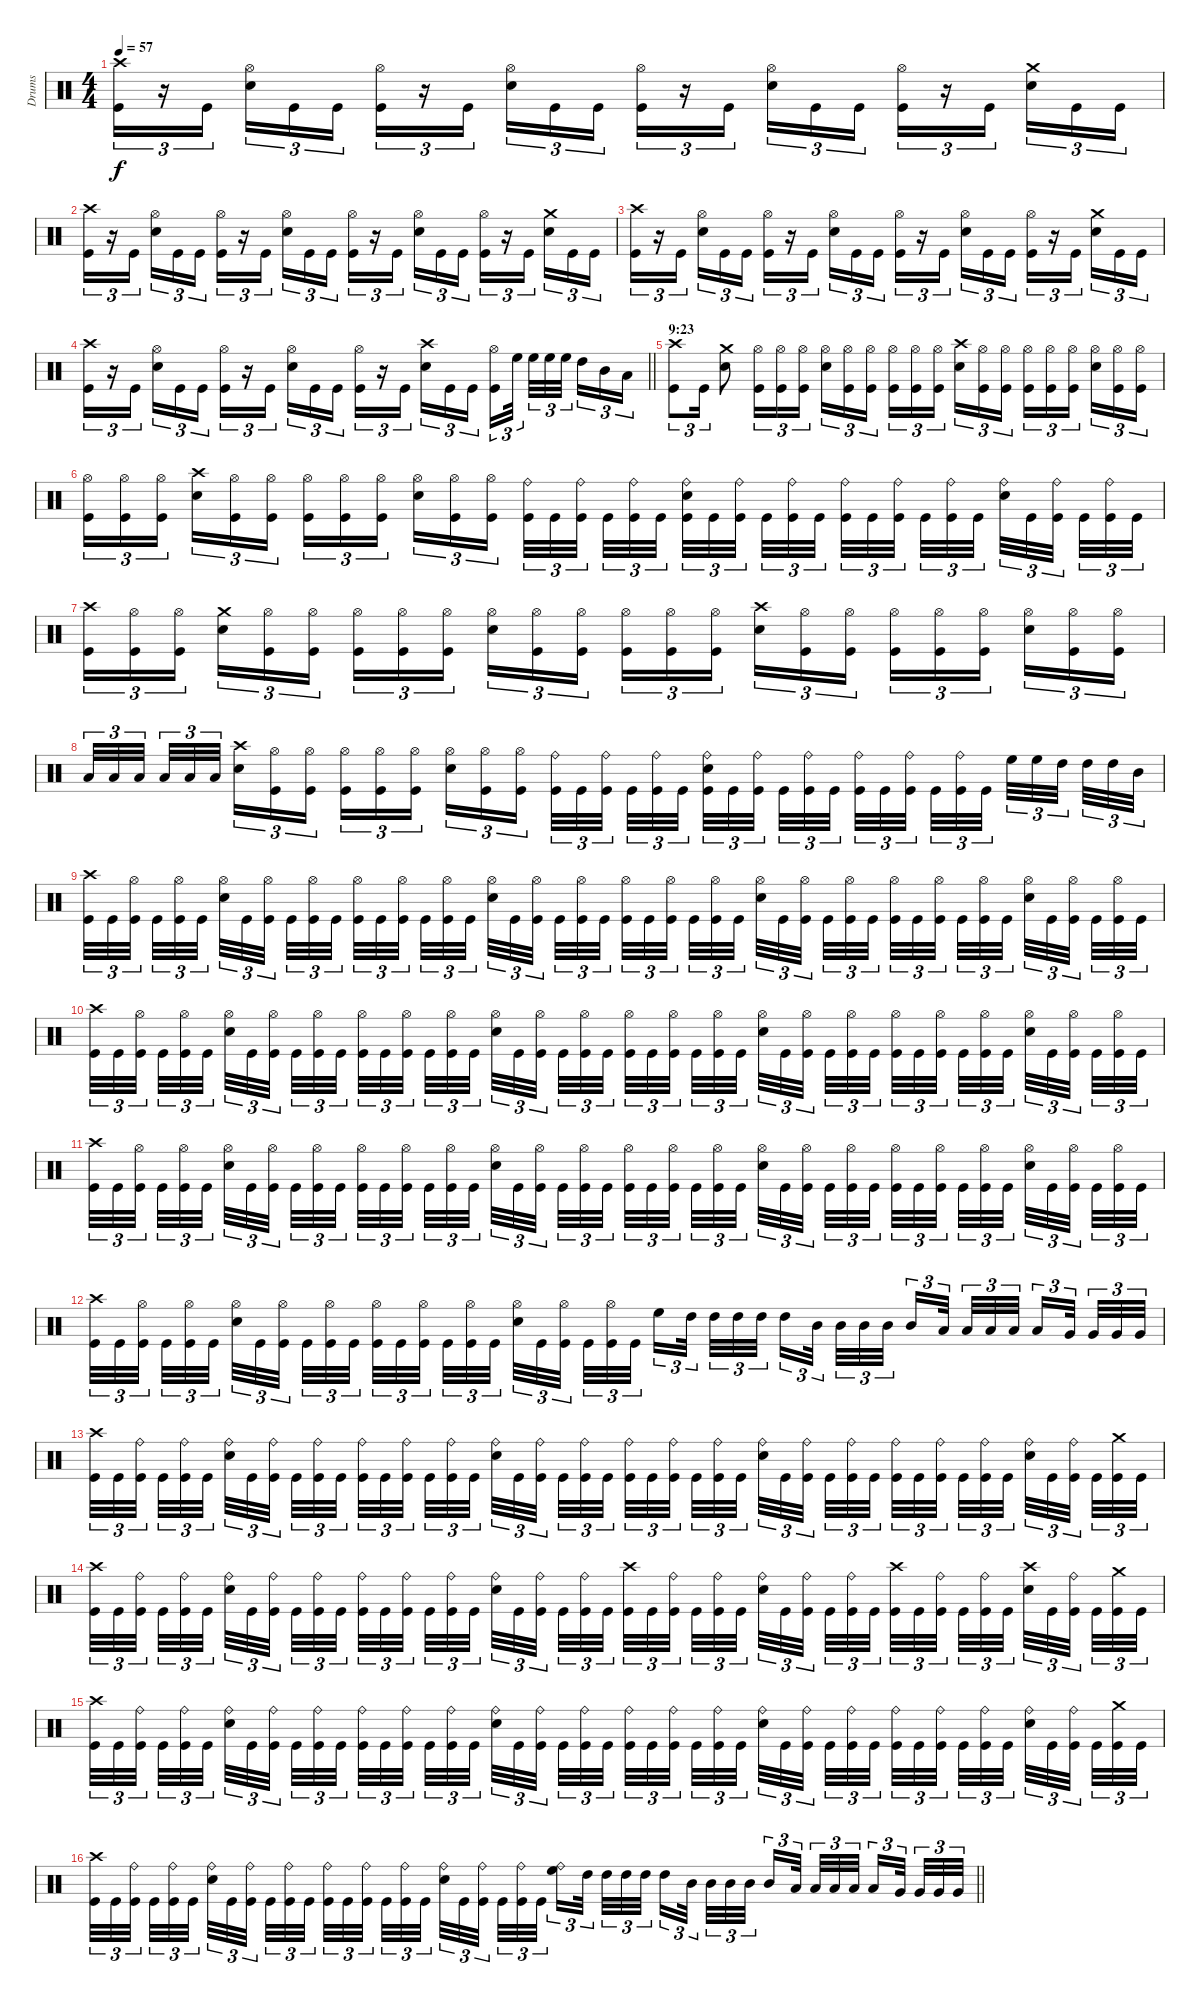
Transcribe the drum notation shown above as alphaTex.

\track ("Drums" "Drums") {instrument percussion}
\staff {score}
\articulation defaults
\ts (4 4)
\tempo 57
\clef neutral
\ks c
("Crash high (hit)" "Kick (hit)").16{tu (3 2) dy f} r.16{tu (3 2)} "Kick (hit)".16{tu (3 2) beam splitsecondary} ("Snare (hit) 2" "Hi-Hat (open)").16{tu (3 2)} "Kick (hit)".16{tu (3 2)} "Kick (hit)".16{tu (3 2)} ("Hi-Hat (open)" "Kick (hit)").16{tu (3 2)} r.16{tu (3 2)} "Kick (hit)".16{tu (3 2) beam splitsecondary} ("Snare (hit) 2" "Hi-Hat (open)").16{tu (3 2)} "Kick (hit)".16{tu (3 2)} "Kick (hit)".16{tu (3 2)} ("Hi-Hat (open)" "Kick (hit)").16{tu (3 2)} r.16{tu (3 2)} "Kick (hit)".16{tu (3 2) beam splitsecondary} ("Snare (hit) 2" "Hi-Hat (open)").16{tu (3 2)} "Kick (hit)".16{tu (3 2)} "Kick (hit)".16{tu (3 2)} ("Hi-Hat (open)" "Kick (hit)").16{tu (3 2)} r.16{tu (3 2)} "Kick (hit)".16{tu (3 2) beam splitsecondary} ("Snare (hit) 2" "Crash medium (hit)").16{tu (3 2)} "Kick (hit)".16{tu (3 2)} "Kick (hit)".16{tu (3 2)} |
("Crash high (hit)" "Kick (hit)").16{tu (3 2)} r.16{tu (3 2)} "Kick (hit)".16{tu (3 2) beam splitsecondary} ("Snare (hit) 2" "Hi-Hat (open)").16{tu (3 2)} "Kick (hit)".16{tu (3 2)} "Kick (hit)".16{tu (3 2)} ("Hi-Hat (open)" "Kick (hit)").16{tu (3 2)} r.16{tu (3 2)} "Kick (hit)".16{tu (3 2) beam splitsecondary} ("Snare (hit) 2" "Hi-Hat (open)").16{tu (3 2)} "Kick (hit)".16{tu (3 2)} "Kick (hit)".16{tu (3 2)} ("Hi-Hat (open)" "Kick (hit)").16{tu (3 2)} r.16{tu (3 2)} "Kick (hit)".16{tu (3 2) beam splitsecondary} ("Snare (hit) 2" "Hi-Hat (open)").16{tu (3 2)} "Kick (hit)".16{tu (3 2)} "Kick (hit)".16{tu (3 2)} ("Hi-Hat (open)" "Kick (hit)").16{tu (3 2)} r.16{tu (3 2)} "Kick (hit)".16{tu (3 2) beam splitsecondary} ("Snare (hit) 2" "Crash medium (hit)").16{tu (3 2)} "Kick (hit)".16{tu (3 2)} "Kick (hit)".16{tu (3 2)} |
("Crash high (hit)" "Kick (hit)").16{tu (3 2)} r.16{tu (3 2)} "Kick (hit)".16{tu (3 2) beam splitsecondary} ("Snare (hit) 2" "Hi-Hat (open)").16{tu (3 2)} "Kick (hit)".16{tu (3 2)} "Kick (hit)".16{tu (3 2)} ("Hi-Hat (open)" "Kick (hit)").16{tu (3 2)} r.16{tu (3 2)} "Kick (hit)".16{tu (3 2) beam splitsecondary} ("Snare (hit) 2" "Hi-Hat (open)").16{tu (3 2)} "Kick (hit)".16{tu (3 2)} "Kick (hit)".16{tu (3 2)} ("Hi-Hat (open)" "Kick (hit)").16{tu (3 2)} r.16{tu (3 2)} "Kick (hit)".16{tu (3 2) beam splitsecondary} ("Snare (hit) 2" "Hi-Hat (open)").16{tu (3 2)} "Kick (hit)".16{tu (3 2)} "Kick (hit)".16{tu (3 2)} ("Hi-Hat (open)" "Kick (hit)").16{tu (3 2)} r.16{tu (3 2)} "Kick (hit)".16{tu (3 2) beam splitsecondary} ("Snare (hit) 2" "Crash medium (hit)").16{tu (3 2)} "Kick (hit)".16{tu (3 2)} "Kick (hit)".16{tu (3 2)} |
\barLineRight lightlight
("Crash high (hit)" "Kick (hit)").16{tu (3 2)} r.16{tu (3 2)} "Kick (hit)".16{tu (3 2) beam splitsecondary} ("Snare (hit) 2" "Hi-Hat (open)").16{tu (3 2)} "Kick (hit)".16{tu (3 2)} "Kick (hit)".16{tu (3 2)} ("Hi-Hat (open)" "Kick (hit)").16{tu (3 2)} r.16{tu (3 2)} "Kick (hit)".16{tu (3 2) beam splitsecondary} ("Snare (hit) 2" "Hi-Hat (open)").16{tu (3 2)} "Kick (hit)".16{tu (3 2)} "Kick (hit)".16{tu (3 2)} ("Hi-Hat (open)" "Kick (hit)").16{tu (3 2)} r.16{tu (3 2)} "Kick (hit)".16{tu (3 2) beam splitsecondary} ("Snare (hit) 2" "Crash high (hit)").16{tu (3 2)} "Kick (hit)".16{tu (3 2)} "Kick (hit)".16{tu (3 2)} ("Hi-Hat (open)" "Kick (hit)").16{tu (3 2)} "High Floor Tom (hit)".32{tu (3 2) beam splitsecondary} "High Floor Tom (hit)".32{tu (3 2)} "High Floor Tom (hit)".32{tu (3 2)} "High Floor Tom (hit)".32{tu (3 2) beam splitsecondary} "High Tom (hit)".16{tu (3 2)} "Mid Tom (hit)".16{tu (3 2)} "Low Tom (hit)".16{tu (3 2)} |
\section ("" "9:23")
("Crash high (hit)" "Kick (hit)").8{tu (3 2)} "Kick (hit)".16{tu (3 2)} ("Snare (hit) 2" "Crash medium (hit)").8 ("Kick (hit)" "Hi-Hat (open)").16{tu (3 2)} ("Kick (hit)" "Hi-Hat (open)").16{tu (3 2)} ("Kick (hit)" "Hi-Hat (open)").16{tu (3 2) beam splitsecondary} ("Hi-Hat (open)" "Snare (hit) 2").16{tu (3 2)} ("Kick (hit)" "Hi-Hat (open)").16{tu (3 2)} ("Kick (hit)" "Hi-Hat (open)").16{tu (3 2)} ("Kick (hit)" "Hi-Hat (open)").16{tu (3 2)} ("Kick (hit)" "Hi-Hat (open)").16{tu (3 2)} ("Kick (hit)" "Hi-Hat (open)").16{tu (3 2) beam splitsecondary} ("Crash high (hit)" "Snare (hit) 2").16{tu (3 2)} ("Kick (hit)" "Hi-Hat (open)").16{tu (3 2)} ("Kick (hit)" "Hi-Hat (open)").16{tu (3 2)} ("Kick (hit)" "Hi-Hat (open)").16{tu (3 2)} ("Kick (hit)" "Hi-Hat (open)").16{tu (3 2)} ("Kick (hit)" "Hi-Hat (open)").16{tu (3 2) beam splitsecondary} ("Hi-Hat (open)" "Snare (hit) 2").16{tu (3 2)} ("Kick (hit)" "Hi-Hat (open)").16{tu (3 2)} ("Kick (hit)" "Hi-Hat (open)").16{tu (3 2)} |
("Kick (hit)" "Hi-Hat (open)").16{tu (3 2)} ("Kick (hit)" "Hi-Hat (open)").16{tu (3 2)} ("Kick (hit)" "Hi-Hat (open)").16{tu (3 2) beam splitsecondary} ("Crash high (hit)" "Snare (hit) 2").16{tu (3 2)} ("Kick (hit)" "Hi-Hat (open)").16{tu (3 2)} ("Kick (hit)" "Hi-Hat (open)").16{tu (3 2)} ("Kick (hit)" "Hi-Hat (open)").16{tu (3 2)} ("Kick (hit)" "Hi-Hat (open)").16{tu (3 2)} ("Kick (hit)" "Hi-Hat (open)").16{tu (3 2) beam splitsecondary} ("Hi-Hat (open)" "Snare (hit) 2").16{tu (3 2)} ("Kick (hit)" "Hi-Hat (open)").16{tu (3 2)} ("Kick (hit)" "Hi-Hat (open)").16{tu (3 2)} ("Kick (hit)" "Ride (bell)").32{tu (3 2)} "Kick (hit)".32{tu (3 2)} ("Kick (hit)" "Ride (bell)").32{tu (3 2) beam splitsecondary} "Kick (hit)".32{tu (3 2)} ("Kick (hit)" "Ride (bell)").32{tu (3 2)} "Kick (hit)".32{tu (3 2) beam splitsecondary} ("Kick (hit)" "Snare (hit) 2" "Ride (bell)").32{tu (3 2)} "Kick (hit)".32{tu (3 2)} ("Ride (bell)" "Kick (hit)").32{tu (3 2) beam splitsecondary} "Kick (hit)".32{tu (3 2)} ("Kick (hit)" "Ride (bell)").32{tu (3 2)} "Kick (hit)".32{tu (3 2)} ("Ride (bell)" "Kick (hit)").32{tu (3 2)} "Kick (hit)".32{tu (3 2)} ("Kick (hit)" "Ride (bell)").32{tu (3 2) beam splitsecondary} "Kick (hit)".32{tu (3 2)} ("Ride (bell)" "Kick (hit)").32{tu (3 2)} "Kick (hit)".32{tu (3 2) beam splitsecondary} ("Snare (hit) 2" "Ride (bell)").32{tu (3 2)} "Kick (hit)".32{tu (3 2)} ("Kick (hit)" "Ride (bell)").32{tu (3 2) beam splitsecondary} "Kick (hit)".32{tu (3 2)} ("Kick (hit)" "Ride (bell)").32{tu (3 2)} "Kick (hit)".32{tu (3 2)} |
("Kick (hit)" "Crash high (hit)").16{tu (3 2)} ("Kick (hit)" "Hi-Hat (open)").16{tu (3 2)} ("Kick (hit)" "Hi-Hat (open)").16{tu (3 2) beam splitsecondary} ("Crash medium (hit)" "Snare (hit) 2").16{tu (3 2)} ("Kick (hit)" "Hi-Hat (open)").16{tu (3 2)} ("Kick (hit)" "Hi-Hat (open)").16{tu (3 2)} ("Kick (hit)" "Hi-Hat (open)").16{tu (3 2)} ("Kick (hit)" "Hi-Hat (open)").16{tu (3 2)} ("Kick (hit)" "Hi-Hat (open)").16{tu (3 2) beam splitsecondary} ("Hi-Hat (open)" "Snare (hit) 2").16{tu (3 2)} ("Kick (hit)" "Hi-Hat (open)").16{tu (3 2)} ("Kick (hit)" "Hi-Hat (open)").16{tu (3 2)} ("Kick (hit)" "Hi-Hat (open)").16{tu (3 2)} ("Kick (hit)" "Hi-Hat (open)").16{tu (3 2)} ("Kick (hit)" "Hi-Hat (open)").16{tu (3 2) beam splitsecondary} ("Crash high (hit)" "Snare (hit) 2").16{tu (3 2)} ("Kick (hit)" "Hi-Hat (open)").16{tu (3 2)} ("Kick (hit)" "Hi-Hat (open)").16{tu (3 2)} ("Kick (hit)" "Hi-Hat (open)").16{tu (3 2)} ("Kick (hit)" "Hi-Hat (open)").16{tu (3 2)} ("Kick (hit)" "Hi-Hat (open)").16{tu (3 2) beam splitsecondary} ("Hi-Hat (open)" "Snare (hit) 2").16{tu (3 2)} ("Kick (hit)" "Hi-Hat (open)").16{tu (3 2)} ("Kick (hit)" "Hi-Hat (open)").16{tu (3 2)} |
"Low Tom (hit)".32{tu (3 2)} "Low Tom (hit)".32{tu (3 2)} "Low Tom (hit)".32{tu (3 2) beam splitsecondary} "Low Tom (hit)".32{tu (3 2)} "Low Tom (hit)".32{tu (3 2)} "Low Tom (hit)".32{tu (3 2) beam splitsecondary} ("Crash high (hit)" "Snare (hit) 2").16{tu (3 2)} ("Kick (hit)" "Hi-Hat (open)").16{tu (3 2)} ("Kick (hit)" "Hi-Hat (open)").16{tu (3 2)} ("Kick (hit)" "Hi-Hat (open)").16{tu (3 2)} ("Kick (hit)" "Hi-Hat (open)").16{tu (3 2)} ("Kick (hit)" "Hi-Hat (open)").16{tu (3 2) beam splitsecondary} ("Hi-Hat (open)" "Snare (hit) 2").16{tu (3 2)} ("Kick (hit)" "Hi-Hat (open)").16{tu (3 2)} ("Kick (hit)" "Hi-Hat (open)").16{tu (3 2)} ("Kick (hit)" "Ride (bell)").32{tu (3 2)} "Kick (hit)".32{tu (3 2)} ("Kick (hit)" "Ride (bell)").32{tu (3 2) beam splitsecondary} "Kick (hit)".32{tu (3 2)} ("Kick (hit)" "Ride (bell)").32{tu (3 2)} "Kick (hit)".32{tu (3 2) beam splitsecondary} ("Kick (hit)" "Snare (hit) 2" "Ride (bell)").32{tu (3 2)} "Kick (hit)".32{tu (3 2)} ("Ride (bell)" "Kick (hit)").32{tu (3 2) beam splitsecondary} "Kick (hit)".32{tu (3 2)} ("Kick (hit)" "Ride (bell)").32{tu (3 2)} "Kick (hit)".32{tu (3 2)} ("Ride (bell)" "Kick (hit)").32{tu (3 2)} "Kick (hit)".32{tu (3 2)} ("Kick (hit)" "Ride (bell)").32{tu (3 2) beam splitsecondary} "Kick (hit)".32{tu (3 2)} ("Ride (bell)" "Kick (hit)").32{tu (3 2)} "Kick (hit)".32{tu (3 2) beam splitsecondary} "High Floor Tom (hit)".32{tu (3 2)} "High Floor Tom (hit)".32{tu (3 2)} "High Tom (hit)".32{tu (3 2) beam splitsecondary} "High Tom (hit)".32{tu (3 2)} "High Tom (hit)".32{tu (3 2)} "Mid Tom (hit)".32{tu (3 2)} |
("Kick (hit)" "Crash high (hit)").32{tu (3 2)} "Kick (hit)".32{tu (3 2)} ("Kick (hit)" "Hi-Hat (open)").32{tu (3 2) beam splitsecondary} "Kick (hit)".32{tu (3 2)} ("Kick (hit)" "Hi-Hat (open)").32{tu (3 2)} "Kick (hit)".32{tu (3 2) beam splitsecondary} ("Snare (hit) 2" "Hi-Hat (open)").32{tu (3 2)} "Kick (hit)".32{tu (3 2)} ("Kick (hit)" "Hi-Hat (open)").32{tu (3 2) beam splitsecondary} "Kick (hit)".32{tu (3 2)} ("Kick (hit)" "Hi-Hat (open)").32{tu (3 2)} "Kick (hit)".32{tu (3 2)} ("Kick (hit)" "Hi-Hat (open)").32{tu (3 2)} "Kick (hit)".32{tu (3 2)} ("Kick (hit)" "Hi-Hat (open)").32{tu (3 2) beam splitsecondary} "Kick (hit)".32{tu (3 2)} ("Kick (hit)" "Hi-Hat (open)").32{tu (3 2)} "Kick (hit)".32{tu (3 2) beam splitsecondary} ("Snare (hit) 2" "Hi-Hat (open)").32{tu (3 2)} "Kick (hit)".32{tu (3 2)} ("Kick (hit)" "Hi-Hat (open)").32{tu (3 2) beam splitsecondary} "Kick (hit)".32{tu (3 2)} ("Kick (hit)" "Hi-Hat (open)").32{tu (3 2)} "Kick (hit)".32{tu (3 2)} ("Kick (hit)" "Hi-Hat (open)").32{tu (3 2)} "Kick (hit)".32{tu (3 2)} ("Kick (hit)" "Hi-Hat (open)").32{tu (3 2) beam splitsecondary} "Kick (hit)".32{tu (3 2)} ("Kick (hit)" "Hi-Hat (open)").32{tu (3 2)} "Kick (hit)".32{tu (3 2) beam splitsecondary} ("Snare (hit) 2" "Hi-Hat (open)").32{tu (3 2)} "Kick (hit)".32{tu (3 2)} ("Kick (hit)" "Hi-Hat (open)").32{tu (3 2) beam splitsecondary} "Kick (hit)".32{tu (3 2)} ("Kick (hit)" "Hi-Hat (open)").32{tu (3 2)} "Kick (hit)".32{tu (3 2)} ("Kick (hit)" "Hi-Hat (open)").32{tu (3 2)} "Kick (hit)".32{tu (3 2)} ("Kick (hit)" "Hi-Hat (open)").32{tu (3 2) beam splitsecondary} "Kick (hit)".32{tu (3 2)} ("Kick (hit)" "Hi-Hat (open)").32{tu (3 2)} "Kick (hit)".32{tu (3 2) beam splitsecondary} ("Snare (hit) 2" "Hi-Hat (open)").32{tu (3 2)} "Kick (hit)".32{tu (3 2)} ("Kick (hit)" "Hi-Hat (open)").32{tu (3 2) beam splitsecondary} "Kick (hit)".32{tu (3 2)} ("Kick (hit)" "Hi-Hat (open)").32{tu (3 2)} "Kick (hit)".32{tu (3 2)} |
("Kick (hit)" "Crash high (hit)").32{tu (3 2)} "Kick (hit)".32{tu (3 2)} ("Kick (hit)" "Hi-Hat (open)").32{tu (3 2) beam splitsecondary} "Kick (hit)".32{tu (3 2)} ("Kick (hit)" "Hi-Hat (open)").32{tu (3 2)} "Kick (hit)".32{tu (3 2) beam splitsecondary} ("Snare (hit) 2" "Hi-Hat (open)").32{tu (3 2)} "Kick (hit)".32{tu (3 2)} ("Kick (hit)" "Hi-Hat (open)").32{tu (3 2) beam splitsecondary} "Kick (hit)".32{tu (3 2)} ("Kick (hit)" "Hi-Hat (open)").32{tu (3 2)} "Kick (hit)".32{tu (3 2)} ("Kick (hit)" "Hi-Hat (open)").32{tu (3 2)} "Kick (hit)".32{tu (3 2)} ("Kick (hit)" "Hi-Hat (open)").32{tu (3 2) beam splitsecondary} "Kick (hit)".32{tu (3 2)} ("Kick (hit)" "Hi-Hat (open)").32{tu (3 2)} "Kick (hit)".32{tu (3 2) beam splitsecondary} ("Snare (hit) 2" "Hi-Hat (open)").32{tu (3 2)} "Kick (hit)".32{tu (3 2)} ("Kick (hit)" "Hi-Hat (open)").32{tu (3 2) beam splitsecondary} "Kick (hit)".32{tu (3 2)} ("Kick (hit)" "Hi-Hat (open)").32{tu (3 2)} "Kick (hit)".32{tu (3 2)} ("Kick (hit)" "Hi-Hat (open)").32{tu (3 2)} "Kick (hit)".32{tu (3 2)} ("Kick (hit)" "Hi-Hat (open)").32{tu (3 2) beam splitsecondary} "Kick (hit)".32{tu (3 2)} ("Kick (hit)" "Hi-Hat (open)").32{tu (3 2)} "Kick (hit)".32{tu (3 2) beam splitsecondary} ("Snare (hit) 2" "Hi-Hat (open)").32{tu (3 2)} "Kick (hit)".32{tu (3 2)} ("Kick (hit)" "Hi-Hat (open)").32{tu (3 2) beam splitsecondary} "Kick (hit)".32{tu (3 2)} ("Kick (hit)" "Hi-Hat (open)").32{tu (3 2)} "Kick (hit)".32{tu (3 2)} ("Kick (hit)" "Hi-Hat (open)").32{tu (3 2)} "Kick (hit)".32{tu (3 2)} ("Kick (hit)" "Hi-Hat (open)").32{tu (3 2) beam splitsecondary} "Kick (hit)".32{tu (3 2)} ("Kick (hit)" "Hi-Hat (open)").32{tu (3 2)} "Kick (hit)".32{tu (3 2) beam splitsecondary} ("Snare (hit) 2" "Hi-Hat (open)").32{tu (3 2)} "Kick (hit)".32{tu (3 2)} ("Kick (hit)" "Hi-Hat (open)").32{tu (3 2) beam splitsecondary} "Kick (hit)".32{tu (3 2)} ("Kick (hit)" "Hi-Hat (open)").32{tu (3 2)} "Kick (hit)".32{tu (3 2)} |
("Kick (hit)" "Crash high (hit)").32{tu (3 2)} "Kick (hit)".32{tu (3 2)} ("Kick (hit)" "Hi-Hat (open)").32{tu (3 2) beam splitsecondary} "Kick (hit)".32{tu (3 2)} ("Kick (hit)" "Hi-Hat (open)").32{tu (3 2)} "Kick (hit)".32{tu (3 2) beam splitsecondary} ("Snare (hit) 2" "Hi-Hat (open)").32{tu (3 2)} "Kick (hit)".32{tu (3 2)} ("Kick (hit)" "Hi-Hat (open)").32{tu (3 2) beam splitsecondary} "Kick (hit)".32{tu (3 2)} ("Kick (hit)" "Hi-Hat (open)").32{tu (3 2)} "Kick (hit)".32{tu (3 2)} ("Kick (hit)" "Hi-Hat (open)").32{tu (3 2)} "Kick (hit)".32{tu (3 2)} ("Kick (hit)" "Hi-Hat (open)").32{tu (3 2) beam splitsecondary} "Kick (hit)".32{tu (3 2)} ("Kick (hit)" "Hi-Hat (open)").32{tu (3 2)} "Kick (hit)".32{tu (3 2) beam splitsecondary} ("Snare (hit) 2" "Hi-Hat (open)").32{tu (3 2)} "Kick (hit)".32{tu (3 2)} ("Kick (hit)" "Hi-Hat (open)").32{tu (3 2) beam splitsecondary} "Kick (hit)".32{tu (3 2)} ("Kick (hit)" "Hi-Hat (open)").32{tu (3 2)} "Kick (hit)".32{tu (3 2)} ("Kick (hit)" "Hi-Hat (open)").32{tu (3 2)} "Kick (hit)".32{tu (3 2)} ("Kick (hit)" "Hi-Hat (open)").32{tu (3 2) beam splitsecondary} "Kick (hit)".32{tu (3 2)} ("Kick (hit)" "Hi-Hat (open)").32{tu (3 2)} "Kick (hit)".32{tu (3 2) beam splitsecondary} ("Snare (hit) 2" "Hi-Hat (open)").32{tu (3 2)} "Kick (hit)".32{tu (3 2)} ("Kick (hit)" "Hi-Hat (open)").32{tu (3 2) beam splitsecondary} "Kick (hit)".32{tu (3 2)} ("Kick (hit)" "Hi-Hat (open)").32{tu (3 2)} "Kick (hit)".32{tu (3 2)} ("Kick (hit)" "Hi-Hat (open)").32{tu (3 2)} "Kick (hit)".32{tu (3 2)} ("Kick (hit)" "Hi-Hat (open)").32{tu (3 2) beam splitsecondary} "Kick (hit)".32{tu (3 2)} ("Kick (hit)" "Hi-Hat (open)").32{tu (3 2)} "Kick (hit)".32{tu (3 2) beam splitsecondary} ("Snare (hit) 2" "Hi-Hat (open)").32{tu (3 2)} "Kick (hit)".32{tu (3 2)} ("Kick (hit)" "Hi-Hat (open)").32{tu (3 2) beam splitsecondary} "Kick (hit)".32{tu (3 2)} ("Kick (hit)" "Hi-Hat (open)").32{tu (3 2)} "Kick (hit)".32{tu (3 2)} |
("Kick (hit)" "Crash high (hit)").32{tu (3 2)} "Kick (hit)".32{tu (3 2)} ("Kick (hit)" "Hi-Hat (open)").32{tu (3 2) beam splitsecondary} "Kick (hit)".32{tu (3 2)} ("Kick (hit)" "Hi-Hat (open)").32{tu (3 2)} "Kick (hit)".32{tu (3 2) beam splitsecondary} ("Snare (hit) 2" "Hi-Hat (open)").32{tu (3 2)} "Kick (hit)".32{tu (3 2)} ("Kick (hit)" "Hi-Hat (open)").32{tu (3 2) beam splitsecondary} "Kick (hit)".32{tu (3 2)} ("Kick (hit)" "Hi-Hat (open)").32{tu (3 2)} "Kick (hit)".32{tu (3 2)} ("Kick (hit)" "Hi-Hat (open)").32{tu (3 2)} "Kick (hit)".32{tu (3 2)} ("Kick (hit)" "Hi-Hat (open)").32{tu (3 2) beam splitsecondary} "Kick (hit)".32{tu (3 2)} ("Kick (hit)" "Hi-Hat (open)").32{tu (3 2)} "Kick (hit)".32{tu (3 2) beam splitsecondary} ("Snare (hit) 2" "Hi-Hat (open)").32{tu (3 2)} "Kick (hit)".32{tu (3 2)} ("Kick (hit)" "Hi-Hat (open)").32{tu (3 2) beam splitsecondary} "Kick (hit)".32{tu (3 2)} ("Kick (hit)" "Hi-Hat (open)").32{tu (3 2)} "Kick (hit)".32{tu (3 2)} "High Floor Tom (hit)".16{tu (3 2)} "High Tom (hit)".32{tu (3 2) beam splitsecondary} "High Tom (hit)".32{tu (3 2)} "High Tom (hit)".32{tu (3 2)} "High Tom (hit)".32{tu (3 2) beam splitsecondary} "High Tom (hit)".16{tu (3 2)} "Mid Tom (hit)".32{tu (3 2) beam splitsecondary} "Mid Tom (hit)".32{tu (3 2)} "Mid Tom (hit)".32{tu (3 2)} "Mid Tom (hit)".32{tu (3 2)} "Mid Tom (hit)".16{tu (3 2)} "Low Tom (hit)".32{tu (3 2) beam splitsecondary} "Low Tom (hit)".32{tu (3 2)} "Low Tom (hit)".32{tu (3 2)} "Low Tom (hit)".32{tu (3 2) beam splitsecondary} "Low Tom (hit)".16{tu (3 2)} "Very Low Tom (hit)".32{tu (3 2) beam splitsecondary} "Very Low Tom (hit)".32{tu (3 2)} "Very Low Tom (hit)".32{tu (3 2)} "Very Low Tom (hit)".32{tu (3 2)} |
("Kick (hit)" "Crash high (hit)").32{tu (3 2)} "Kick (hit)".32{tu (3 2)} ("Kick (hit)" "Ride (bell)").32{tu (3 2) beam splitsecondary} "Kick (hit)".32{tu (3 2)} ("Kick (hit)" "Ride (bell)").32{tu (3 2)} "Kick (hit)".32{tu (3 2) beam splitsecondary} ("Snare (hit) 2" "Ride (bell)").32{tu (3 2)} "Kick (hit)".32{tu (3 2)} ("Kick (hit)" "Ride (bell)").32{tu (3 2) beam splitsecondary} "Kick (hit)".32{tu (3 2)} ("Kick (hit)" "Ride (bell)").32{tu (3 2)} "Kick (hit)".32{tu (3 2)} ("Kick (hit)" "Ride (bell)").32{tu (3 2)} "Kick (hit)".32{tu (3 2)} ("Kick (hit)" "Ride (bell)").32{tu (3 2) beam splitsecondary} "Kick (hit)".32{tu (3 2)} ("Kick (hit)" "Ride (bell)").32{tu (3 2)} "Kick (hit)".32{tu (3 2) beam splitsecondary} ("Snare (hit) 2" "Ride (bell)").32{tu (3 2)} "Kick (hit)".32{tu (3 2)} ("Kick (hit)" "Ride (bell)").32{tu (3 2) beam splitsecondary} "Kick (hit)".32{tu (3 2)} ("Kick (hit)" "Ride (bell)").32{tu (3 2)} "Kick (hit)".32{tu (3 2)} ("Kick (hit)" "Ride (bell)").32{tu (3 2)} "Kick (hit)".32{tu (3 2)} ("Kick (hit)" "Ride (bell)").32{tu (3 2) beam splitsecondary} "Kick (hit)".32{tu (3 2)} ("Kick (hit)" "Ride (bell)").32{tu (3 2)} "Kick (hit)".32{tu (3 2) beam splitsecondary} ("Snare (hit) 2" "Ride (bell)").32{tu (3 2)} "Kick (hit)".32{tu (3 2)} ("Kick (hit)" "Ride (bell)").32{tu (3 2) beam splitsecondary} "Kick (hit)".32{tu (3 2)} ("Kick (hit)" "Ride (bell)").32{tu (3 2)} "Kick (hit)".32{tu (3 2)} ("Kick (hit)" "Ride (bell)").32{tu (3 2)} "Kick (hit)".32{tu (3 2)} ("Kick (hit)" "Ride (bell)").32{tu (3 2) beam splitsecondary} "Kick (hit)".32{tu (3 2)} ("Kick (hit)" "Ride (bell)").32{tu (3 2)} "Kick (hit)".32{tu (3 2) beam splitsecondary} ("Snare (hit) 2" "Ride (bell)").32{tu (3 2)} "Kick (hit)".32{tu (3 2)} ("Kick (hit)" "Ride (bell)").32{tu (3 2) beam splitsecondary} "Kick (hit)".32{tu (3 2)} ("Kick (hit)" "Crash medium (hit)").32{tu (3 2)} "Kick (hit)".32{tu (3 2)} |
("Kick (hit)" "Crash high (hit)").32{tu (3 2)} "Kick (hit)".32{tu (3 2)} ("Kick (hit)" "Ride (bell)").32{tu (3 2) beam splitsecondary} "Kick (hit)".32{tu (3 2)} ("Kick (hit)" "Ride (bell)").32{tu (3 2)} "Kick (hit)".32{tu (3 2) beam splitsecondary} ("Snare (hit) 2" "Ride (bell)").32{tu (3 2)} "Kick (hit)".32{tu (3 2)} ("Kick (hit)" "Ride (bell)").32{tu (3 2) beam splitsecondary} "Kick (hit)".32{tu (3 2)} ("Kick (hit)" "Ride (bell)").32{tu (3 2)} "Kick (hit)".32{tu (3 2)} ("Kick (hit)" "Ride (bell)").32{tu (3 2)} "Kick (hit)".32{tu (3 2)} ("Kick (hit)" "Ride (bell)").32{tu (3 2) beam splitsecondary} "Kick (hit)".32{tu (3 2)} ("Kick (hit)" "Ride (bell)").32{tu (3 2)} "Kick (hit)".32{tu (3 2) beam splitsecondary} ("Snare (hit) 2" "Ride (bell)").32{tu (3 2)} "Kick (hit)".32{tu (3 2)} ("Kick (hit)" "Ride (bell)").32{tu (3 2) beam splitsecondary} "Kick (hit)".32{tu (3 2)} ("Kick (hit)" "Ride (bell)").32{tu (3 2)} "Kick (hit)".32{tu (3 2)} ("Kick (hit)" "Crash high (hit)").32{tu (3 2)} "Kick (hit)".32{tu (3 2)} ("Kick (hit)" "Ride (bell)").32{tu (3 2) beam splitsecondary} "Kick (hit)".32{tu (3 2)} ("Kick (hit)" "Ride (bell)").32{tu (3 2)} "Kick (hit)".32{tu (3 2) beam splitsecondary} ("Snare (hit) 2" "Ride (bell)").32{tu (3 2)} "Kick (hit)".32{tu (3 2)} ("Kick (hit)" "Ride (bell)").32{tu (3 2) beam splitsecondary} "Kick (hit)".32{tu (3 2)} ("Kick (hit)" "Ride (bell)").32{tu (3 2)} "Kick (hit)".32{tu (3 2)} ("Kick (hit)" "Crash high (hit)").32{tu (3 2)} "Kick (hit)".32{tu (3 2)} ("Kick (hit)" "Ride (bell)").32{tu (3 2) beam splitsecondary} "Kick (hit)".32{tu (3 2)} ("Kick (hit)" "Ride (bell)").32{tu (3 2)} "Kick (hit)".32{tu (3 2) beam splitsecondary} ("Snare (hit) 2" "Crash high (hit)").32{tu (3 2)} "Kick (hit)".32{tu (3 2)} ("Kick (hit)" "Ride (bell)").32{tu (3 2) beam splitsecondary} "Kick (hit)".32{tu (3 2)} ("Kick (hit)" "Crash medium (hit)").32{tu (3 2)} "Kick (hit)".32{tu (3 2)} |
("Kick (hit)" "Crash high (hit)").32{tu (3 2)} "Kick (hit)".32{tu (3 2)} ("Kick (hit)" "Ride (bell)").32{tu (3 2) beam splitsecondary} "Kick (hit)".32{tu (3 2)} ("Kick (hit)" "Ride (bell)").32{tu (3 2)} "Kick (hit)".32{tu (3 2) beam splitsecondary} ("Snare (hit) 2" "Ride (bell)").32{tu (3 2)} "Kick (hit)".32{tu (3 2)} ("Kick (hit)" "Ride (bell)").32{tu (3 2) beam splitsecondary} "Kick (hit)".32{tu (3 2)} ("Kick (hit)" "Ride (bell)").32{tu (3 2)} "Kick (hit)".32{tu (3 2)} ("Kick (hit)" "Ride (bell)").32{tu (3 2)} "Kick (hit)".32{tu (3 2)} ("Kick (hit)" "Ride (bell)").32{tu (3 2) beam splitsecondary} "Kick (hit)".32{tu (3 2)} ("Kick (hit)" "Ride (bell)").32{tu (3 2)} "Kick (hit)".32{tu (3 2) beam splitsecondary} ("Snare (hit) 2" "Ride (bell)").32{tu (3 2)} "Kick (hit)".32{tu (3 2)} ("Kick (hit)" "Ride (bell)").32{tu (3 2) beam splitsecondary} "Kick (hit)".32{tu (3 2)} ("Kick (hit)" "Ride (bell)").32{tu (3 2)} "Kick (hit)".32{tu (3 2)} ("Kick (hit)" "Ride (bell)").32{tu (3 2)} "Kick (hit)".32{tu (3 2)} ("Kick (hit)" "Ride (bell)").32{tu (3 2) beam splitsecondary} "Kick (hit)".32{tu (3 2)} ("Kick (hit)" "Ride (bell)").32{tu (3 2)} "Kick (hit)".32{tu (3 2) beam splitsecondary} ("Snare (hit) 2" "Ride (bell)").32{tu (3 2)} "Kick (hit)".32{tu (3 2)} ("Kick (hit)" "Ride (bell)").32{tu (3 2) beam splitsecondary} "Kick (hit)".32{tu (3 2)} ("Kick (hit)" "Ride (bell)").32{tu (3 2)} "Kick (hit)".32{tu (3 2)} ("Kick (hit)" "Ride (bell)").32{tu (3 2)} "Kick (hit)".32{tu (3 2)} ("Kick (hit)" "Ride (bell)").32{tu (3 2) beam splitsecondary} "Kick (hit)".32{tu (3 2)} ("Kick (hit)" "Ride (bell)").32{tu (3 2)} "Kick (hit)".32{tu (3 2) beam splitsecondary} ("Snare (hit) 2" "Ride (bell)").32{tu (3 2)} "Kick (hit)".32{tu (3 2)} ("Kick (hit)" "Ride (bell)").32{tu (3 2) beam splitsecondary} "Kick (hit)".32{tu (3 2)} ("Kick (hit)" "Crash medium (hit)").32{tu (3 2)} "Kick (hit)".32{tu (3 2)} |
\barLineRight lightlight
("Kick (hit)" "Crash high (hit)").32{tu (3 2)} "Kick (hit)".32{tu (3 2)} ("Kick (hit)" "Ride (bell)").32{tu (3 2) beam splitsecondary} "Kick (hit)".32{tu (3 2)} ("Kick (hit)" "Ride (bell)").32{tu (3 2)} "Kick (hit)".32{tu (3 2) beam splitsecondary} ("Snare (hit) 2" "Ride (bell)").32{tu (3 2)} "Kick (hit)".32{tu (3 2)} ("Kick (hit)" "Ride (bell)").32{tu (3 2) beam splitsecondary} "Kick (hit)".32{tu (3 2)} ("Kick (hit)" "Ride (bell)").32{tu (3 2)} "Kick (hit)".32{tu (3 2)} ("Kick (hit)" "Ride (bell)").32{tu (3 2)} "Kick (hit)".32{tu (3 2)} ("Kick (hit)" "Ride (bell)").32{tu (3 2) beam splitsecondary} "Kick (hit)".32{tu (3 2)} ("Kick (hit)" "Ride (bell)").32{tu (3 2)} "Kick (hit)".32{tu (3 2) beam splitsecondary} ("Snare (hit) 2" "Ride (bell)").32{tu (3 2)} "Kick (hit)".32{tu (3 2)} ("Kick (hit)" "Ride (bell)").32{tu (3 2) beam splitsecondary} "Kick (hit)".32{tu (3 2)} ("Kick (hit)" "Ride (bell)").32{tu (3 2)} "Kick (hit)".32{tu (3 2)} ("High Floor Tom (hit)" "Ride (bell)").16{tu (3 2)} "High Tom (hit)".32{tu (3 2) beam splitsecondary} "High Tom (hit)".32{tu (3 2)} "High Tom (hit)".32{tu (3 2)} "High Tom (hit)".32{tu (3 2) beam splitsecondary} "High Tom (hit)".16{tu (3 2)} "Mid Tom (hit)".32{tu (3 2) beam splitsecondary} "Mid Tom (hit)".32{tu (3 2)} "Mid Tom (hit)".32{tu (3 2)} "Mid Tom (hit)".32{tu (3 2)} "Mid Tom (hit)".16{tu (3 2)} "Low Tom (hit)".32{tu (3 2) beam splitsecondary} "Low Tom (hit)".32{tu (3 2)} "Low Tom (hit)".32{tu (3 2)} "Low Tom (hit)".32{tu (3 2) beam splitsecondary} "Low Tom (hit)".16{tu (3 2)} "Very Low Tom (hit)".32{tu (3 2) beam splitsecondary} "Very Low Tom (hit)".32{tu (3 2)} "Very Low Tom (hit)".32{tu (3 2)} "Very Low Tom (hit)".32{tu (3 2)}
